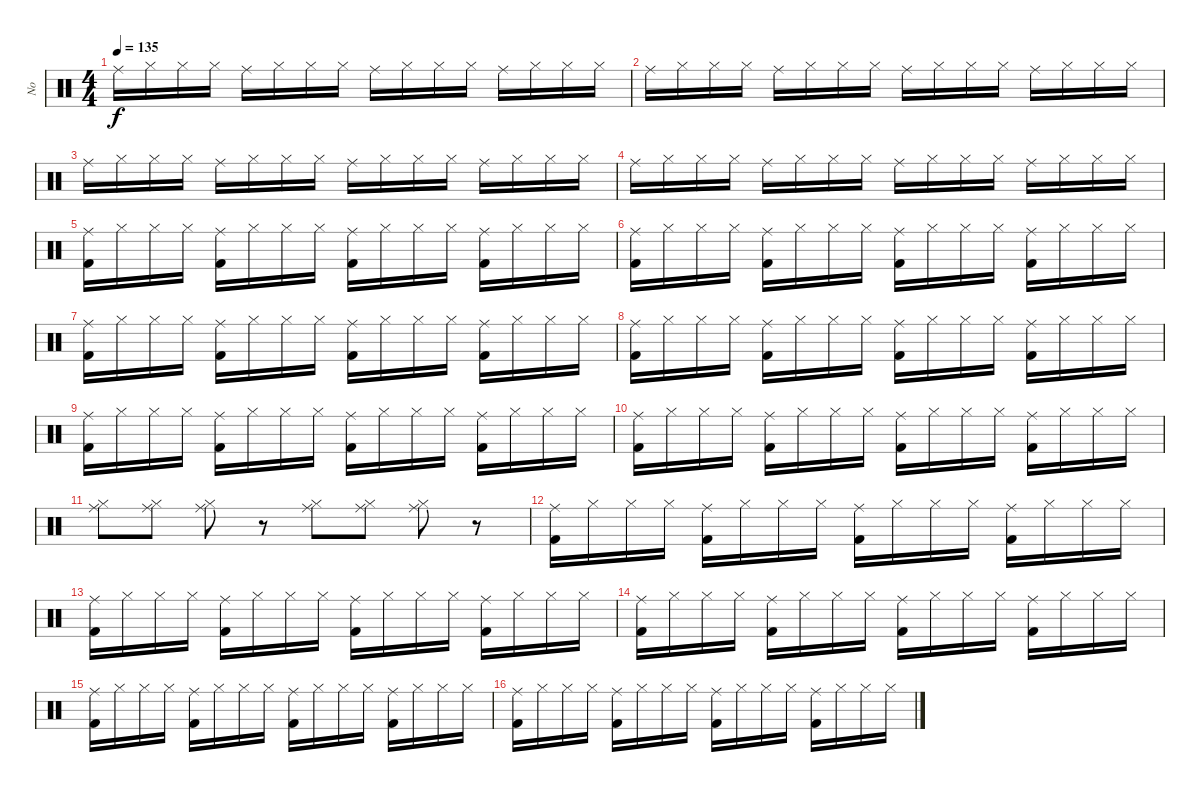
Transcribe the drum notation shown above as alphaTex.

\track ("No" "No") {instrument percussion}
\staff {score}
\articulation defaults
\ts (4 4)
\tempo 135
\clef neutral
\ks c "Ride (middle)".16{dy f} "Hi-Hat (closed)".16 "Hi-Hat (closed)".16 "Hi-Hat (closed)".16 "Ride (middle)".16 "Hi-Hat (closed)".16 "Hi-Hat (closed)".16 "Hi-Hat (closed)".16 "Ride (middle)".16 "Hi-Hat (closed)".16 "Hi-Hat (closed)".16 "Hi-Hat (closed)".16 "Ride (middle)".16 "Hi-Hat (closed)".16 "Hi-Hat (closed)".16 "Hi-Hat (closed)".16
|
"Ride (middle)".16 "Hi-Hat (closed)".16 "Hi-Hat (closed)".16 "Hi-Hat (closed)".16 "Ride (middle)".16 "Hi-Hat (closed)".16 "Hi-Hat (closed)".16 "Hi-Hat (closed)".16 "Ride (middle)".16 "Hi-Hat (closed)".16 "Hi-Hat (closed)".16 "Hi-Hat (closed)".16 "Ride (middle)".16 "Hi-Hat (closed)".16 "Hi-Hat (closed)".16 "Hi-Hat (closed)".16 |
"Ride (middle)".16 "Hi-Hat (closed)".16 "Hi-Hat (closed)".16 "Hi-Hat (closed)".16 "Ride (middle)".16 "Hi-Hat (closed)".16 "Hi-Hat (closed)".16 "Hi-Hat (closed)".16 "Ride (middle)".16 "Hi-Hat (closed)".16 "Hi-Hat (closed)".16 "Hi-Hat (closed)".16 "Ride (middle)".16 "Hi-Hat (closed)".16 "Hi-Hat (closed)".16 "Hi-Hat (closed)".16 |
"Ride (middle)".16 "Hi-Hat (closed)".16 "Hi-Hat (closed)".16 "Hi-Hat (closed)".16 "Ride (middle)".16 "Hi-Hat (closed)".16 "Hi-Hat (closed)".16 "Hi-Hat (closed)".16 "Ride (middle)".16 "Hi-Hat (closed)".16 "Hi-Hat (closed)".16 "Hi-Hat (closed)".16 "Ride (middle)".16 "Hi-Hat (closed)".16 "Hi-Hat (closed)".16 "Hi-Hat (closed)".16 |
("Kick (hit) 2" "Ride (middle)").16 "Hi-Hat (closed)".16 "Hi-Hat (closed)".16 "Hi-Hat (closed)".16 ("Kick (hit) 2" "Ride (middle)").16 "Hi-Hat (closed)".16 "Hi-Hat (closed)".16 "Hi-Hat (closed)".16 ("Kick (hit) 2" "Ride (middle)").16 "Hi-Hat (closed)".16 "Hi-Hat (closed)".16 "Hi-Hat (closed)".16 ("Kick (hit) 2" "Ride (middle)").16 "Hi-Hat (closed)".16 "Hi-Hat (closed)".16 "Hi-Hat (closed)".16 |
("Kick (hit) 2" "Ride (middle)").16 "Hi-Hat (closed)".16 "Hi-Hat (closed)".16 "Hi-Hat (closed)".16 ("Kick (hit) 2" "Ride (middle)").16 "Hi-Hat (closed)".16 "Hi-Hat (closed)".16 "Hi-Hat (closed)".16 ("Kick (hit) 2" "Ride (middle)").16 "Hi-Hat (closed)".16 "Hi-Hat (closed)".16 "Hi-Hat (closed)".16 ("Kick (hit) 2" "Ride (middle)").16 "Hi-Hat (closed)".16 "Hi-Hat (closed)".16 "Hi-Hat (closed)".16 |
("Kick (hit) 2" "Ride (middle)").16 "Hi-Hat (closed)".16 "Hi-Hat (closed)".16 "Hi-Hat (closed)".16 ("Kick (hit) 2" "Ride (middle)").16 "Hi-Hat (closed)".16 "Hi-Hat (closed)".16 "Hi-Hat (closed)".16 ("Kick (hit) 2" "Ride (middle)").16 "Hi-Hat (closed)".16 "Hi-Hat (closed)".16 "Hi-Hat (closed)".16 ("Kick (hit) 2" "Ride (middle)").16 "Hi-Hat (closed)".16 "Hi-Hat (closed)".16 "Hi-Hat (closed)".16 |
("Kick (hit) 2" "Ride (middle)").16 "Hi-Hat (closed)".16 "Hi-Hat (closed)".16 "Hi-Hat (closed)".16 ("Kick (hit) 2" "Ride (middle)").16 "Hi-Hat (closed)".16 "Hi-Hat (closed)".16 "Hi-Hat (closed)".16 ("Kick (hit) 2" "Ride (middle)").16 "Hi-Hat (closed)".16 "Hi-Hat (closed)".16 "Hi-Hat (closed)".16 ("Kick (hit) 2" "Ride (middle)").16 "Hi-Hat (closed)".16 "Hi-Hat (closed)".16 "Hi-Hat (closed)".16 |
("Kick (hit) 2" "Ride (middle)").16 "Hi-Hat (closed)".16 "Hi-Hat (closed)".16 "Hi-Hat (closed)".16 ("Kick (hit) 2" "Ride (middle)").16 "Hi-Hat (closed)".16 "Hi-Hat (closed)".16 "Hi-Hat (closed)".16 ("Kick (hit) 2" "Ride (middle)").16 "Hi-Hat (closed)".16 "Hi-Hat (closed)".16 "Hi-Hat (closed)".16 ("Kick (hit) 2" "Ride (middle)").16 "Hi-Hat (closed)".16 "Hi-Hat (closed)".16 "Hi-Hat (closed)".16 |
("Kick (hit) 2" "Ride (middle)").16 "Hi-Hat (closed)".16 "Hi-Hat (closed)".16 "Hi-Hat (closed)".16 ("Kick (hit) 2" "Ride (middle)").16 "Hi-Hat (closed)".16 "Hi-Hat (closed)".16 "Hi-Hat (closed)".16 ("Kick (hit) 2" "Ride (middle)").16 "Hi-Hat (closed)".16 "Hi-Hat (closed)".16 "Hi-Hat (closed)".16 ("Kick (hit) 2" "Ride (middle)").16 "Hi-Hat (closed)".16 "Hi-Hat (closed)".16 "Hi-Hat (closed)".16 |
("Hi-Hat (closed)" "Ride (middle)").8 ("Hi-Hat (closed)" "Ride (middle)").8 ("Hi-Hat (closed)" "Ride (middle)").8 r.8 ("Hi-Hat (closed)" "Ride (middle)").8 ("Hi-Hat (closed)" "Ride (middle)").8 ("Hi-Hat (closed)" "Ride (middle)").8 r.8 |
("Kick (hit) 2" "Ride (middle)").16 "Hi-Hat (closed)".16 "Hi-Hat (closed)".16 "Hi-Hat (closed)".16 ("Kick (hit) 2" "Ride (middle)").16 "Hi-Hat (closed)".16 "Hi-Hat (closed)".16 "Hi-Hat (closed)".16 ("Kick (hit) 2" "Ride (middle)").16 "Hi-Hat (closed)".16 "Hi-Hat (closed)".16 "Hi-Hat (closed)".16 ("Kick (hit) 2" "Ride (middle)").16 "Hi-Hat (closed)".16 "Hi-Hat (closed)".16 "Hi-Hat (closed)".16 |
("Kick (hit) 2" "Ride (middle)").16 "Hi-Hat (closed)".16 "Hi-Hat (closed)".16 "Hi-Hat (closed)".16 ("Kick (hit) 2" "Ride (middle)").16 "Hi-Hat (closed)".16 "Hi-Hat (closed)".16 "Hi-Hat (closed)".16 ("Kick (hit) 2" "Ride (middle)").16 "Hi-Hat (closed)".16 "Hi-Hat (closed)".16 "Hi-Hat (closed)".16 ("Kick (hit) 2" "Ride (middle)").16 "Hi-Hat (closed)".16 "Hi-Hat (closed)".16 "Hi-Hat (closed)".16 |
("Kick (hit) 2" "Ride (middle)").16 "Hi-Hat (closed)".16 "Hi-Hat (closed)".16 "Hi-Hat (closed)".16 ("Kick (hit) 2" "Ride (middle)").16 "Hi-Hat (closed)".16 "Hi-Hat (closed)".16 "Hi-Hat (closed)".16 ("Kick (hit) 2" "Ride (middle)").16 "Hi-Hat (closed)".16 "Hi-Hat (closed)".16 "Hi-Hat (closed)".16 ("Kick (hit) 2" "Ride (middle)").16 "Hi-Hat (closed)".16 "Hi-Hat (closed)".16 "Hi-Hat (closed)".16 |
("Kick (hit) 2" "Ride (middle)").16 "Hi-Hat (closed)".16 "Hi-Hat (closed)".16 "Hi-Hat (closed)".16 ("Kick (hit) 2" "Ride (middle)").16 "Hi-Hat (closed)".16 "Hi-Hat (closed)".16 "Hi-Hat (closed)".16 ("Kick (hit) 2" "Ride (middle)").16 "Hi-Hat (closed)".16 "Hi-Hat (closed)".16 "Hi-Hat (closed)".16 ("Kick (hit) 2" "Ride (middle)").16 "Hi-Hat (closed)".16 "Hi-Hat (closed)".16 "Hi-Hat (closed)".16 |
("Kick (hit) 2" "Ride (middle)").16 "Hi-Hat (closed)".16 "Hi-Hat (closed)".16 "Hi-Hat (closed)".16 ("Kick (hit) 2" "Ride (middle)").16 "Hi-Hat (closed)".16 "Hi-Hat (closed)".16 "Hi-Hat (closed)".16 ("Kick (hit) 2" "Ride (middle)").16 "Hi-Hat (closed)".16 "Hi-Hat (closed)".16 "Hi-Hat (closed)".16 ("Kick (hit) 2" "Ride (middle)").16 "Hi-Hat (closed)".16 "Hi-Hat (closed)".16 "Hi-Hat (closed)".16
